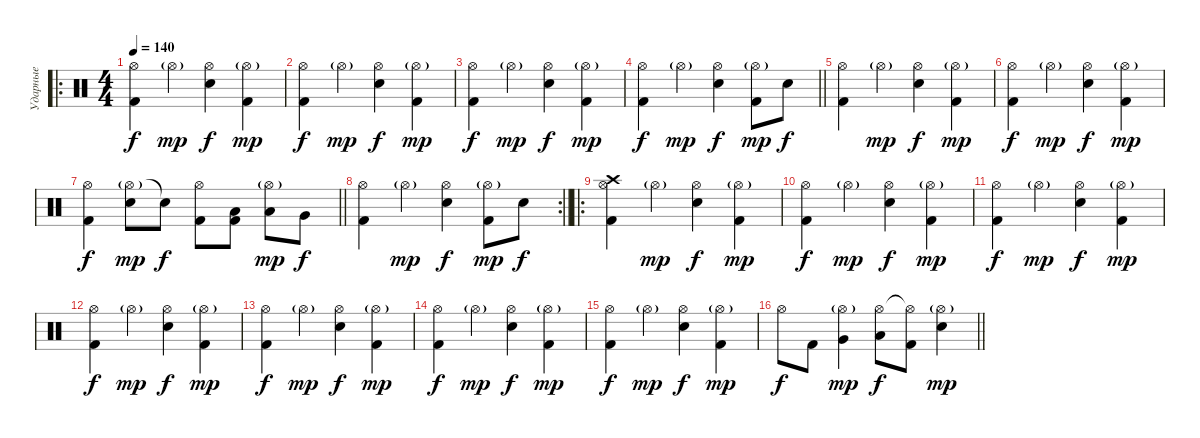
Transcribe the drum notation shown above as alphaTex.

\track ("Ударные" "Ударные") {instrument percussion}
\staff {score}
\articulation defaults
\ro
\ts (4 4)
\tempo 140
\clef neutral
\ks c
("Hi-Hat (open)" "Kick (hit) 2").4{dy f} "Hi-Hat (open)"{g}.4{dy mp} ("Hi-Hat (open)" "Electric Snare (hit)").4{dy f} ("Hi-Hat (open)"{g} "Kick (hit) 2").4{dy mp} |
("Hi-Hat (open)" "Kick (hit) 2").4{dy f} "Hi-Hat (open)"{g}.4{dy mp} ("Hi-Hat (open)" "Electric Snare (hit)").4{dy f} ("Hi-Hat (open)"{g} "Kick (hit) 2").4{dy mp} |
("Hi-Hat (open)" "Kick (hit) 2").4{dy f} "Hi-Hat (open)"{g}.4{dy mp} ("Hi-Hat (open)" "Electric Snare (hit)").4{dy f} ("Hi-Hat (open)"{g} "Kick (hit) 2").4{dy mp} |
\barLineRight lightlight
("Hi-Hat (open)" "Kick (hit) 2").4{dy f} "Hi-Hat (open)"{g}.4{dy mp} ("Hi-Hat (open)" "Electric Snare (hit)").4{dy f} ("Hi-Hat (open)"{g} "Kick (hit) 2").8{dy mp} "Electric Snare (hit)".8{dy f} |
("Hi-Hat (open)" "Kick (hit) 2").4 "Hi-Hat (open)"{g}.4{dy mp} ("Hi-Hat (open)" "Electric Snare (hit)").4{dy f} ("Hi-Hat (open)"{g} "Kick (hit) 2").4{dy mp} |
("Hi-Hat (open)" "Kick (hit) 2").4{dy f} "Hi-Hat (open)"{g}.4{dy mp} ("Hi-Hat (open)" "Electric Snare (hit)").4{dy f} ("Hi-Hat (open)"{g} "Kick (hit) 2").4{dy mp} |
\barLineRight lightlight
("Hi-Hat (open)" "Kick (hit) 2").4{dy f} ("Hi-Hat (open)"{g} "Electric Snare (hit)").8{dy mp} "Snare (hit)"{t}.8{dy f} ("Hi-Hat (open)" "Kick (hit) 2").8 ("Low Floor Tom (hit)" "Kick (hit) 2").8 ("Hi-Hat (open)"{g} "Low Tom (hit)").8{dy mp} "Very Low Tom (hit)".8{dy f} |
\rc 2
\barLineRight lightlight
("Hi-Hat (open)" "Kick (hit) 2").4 "Hi-Hat (open)"{g}.4{dy mp} ("Hi-Hat (open)" "Electric Snare (hit)").4{dy f} ("Hi-Hat (open)"{g} "Kick (hit) 2").8{dy mp} "Electric Snare (hit)".8{dy f} |
\ro
("Hi-Hat (open)" "Crash high (hit)" "Kick (hit) 2").4 "Hi-Hat (open)"{g}.4{dy mp} ("Hi-Hat (open)" "Electric Snare (hit)").4{dy f} ("Hi-Hat (open)"{g} "Kick (hit) 2").4{dy mp} |
("Hi-Hat (open)" "Kick (hit) 2").4{dy f} "Hi-Hat (open)"{g}.4{dy mp} ("Hi-Hat (open)" "Electric Snare (hit)").4{dy f} ("Hi-Hat (open)"{g} "Kick (hit) 2").4{dy mp} |
("Hi-Hat (open)" "Kick (hit) 2").4{dy f} "Hi-Hat (open)"{g}.4{dy mp} ("Hi-Hat (open)" "Electric Snare (hit)").4{dy f} ("Hi-Hat (open)"{g} "Kick (hit) 2").4{dy mp} |
("Hi-Hat (open)" "Kick (hit) 2").4{dy f} "Hi-Hat (open)"{g}.4{dy mp} ("Hi-Hat (open)" "Electric Snare (hit)").4{dy f} ("Hi-Hat (open)"{g} "Kick (hit) 2").4{dy mp} |
("Hi-Hat (open)" "Kick (hit) 2").4{dy f} "Hi-Hat (open)"{g}.4{dy mp} ("Hi-Hat (open)" "Electric Snare (hit)").4{dy f} ("Hi-Hat (open)"{g} "Kick (hit) 2").4{dy mp} |
("Hi-Hat (open)" "Kick (hit) 2").4{dy f} "Hi-Hat (open)"{g}.4{dy mp} ("Hi-Hat (open)" "Electric Snare (hit)").4{dy f} ("Hi-Hat (open)"{g} "Kick (hit) 2").4{dy mp} |
("Hi-Hat (open)" "Kick (hit) 2").4{dy f} "Hi-Hat (open)"{g}.4{dy mp} ("Hi-Hat (open)" "Electric Snare (hit)").4{dy f} ("Hi-Hat (open)"{g} "Kick (hit) 2").4{dy mp} |
\barLineRight lightlight "Hi-Hat (open)".8{dy f} "Kick (hit) 2".8
("Hi-Hat (open)"{g} "Very Low Tom (hit)").4{dy mp} ("Hi-Hat (open)" "Low Floor Tom (hit)").8{dy f} ("Hi-Hat (open)"{t} "Kick (hit) 2").8 ("Hi-Hat (open)"{g} "Electric Snare (hit)").4{dy mp}
